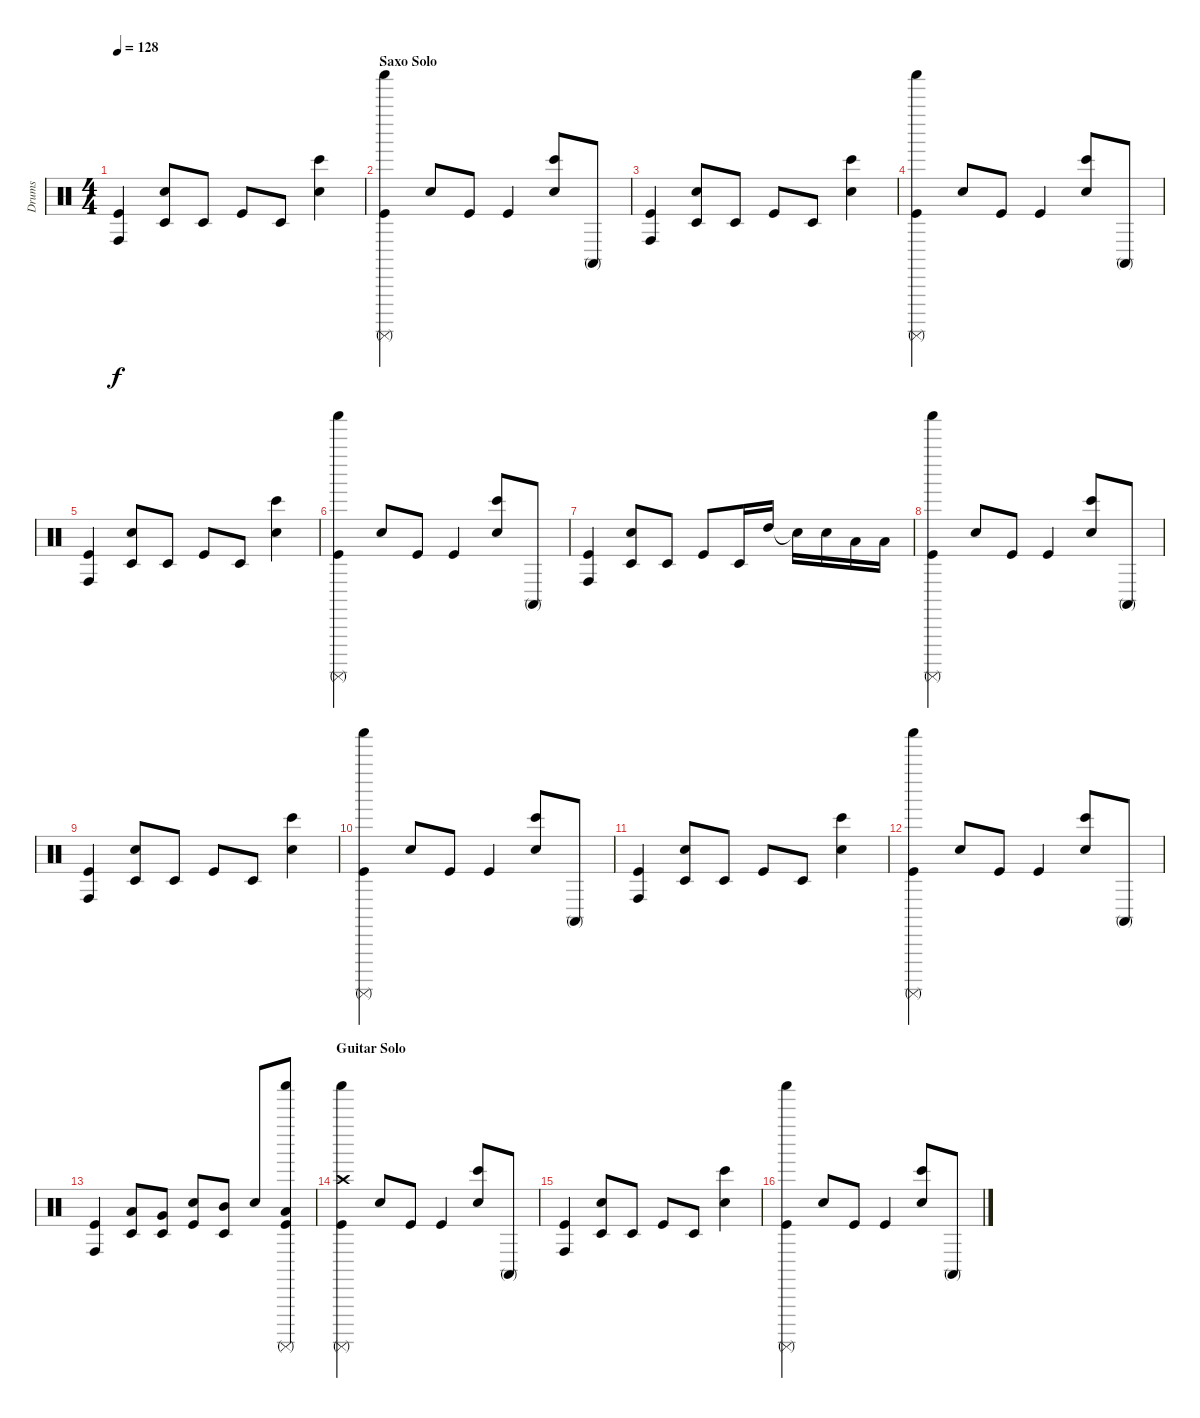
\track ("Drums" "Drums") {instrument percussion}
\staff {score}
\articulation defaults
\ts (4 4)
\tempo 128
\clef neutral
\ks c
("Conga high (hit)" "Kick (hit)").4{dy f} ("Timbale low (hit)" "Electric Snare (hit)").8 "Timbale low (hit)".8 "Kick (hit)".8 "Timbale low (hit)".8 ("Bongo High (hit)" "Electric Snare (hit)").4 |
\section ("" "Saxo Solo")
("Surdo (mute)" "Shaker (hit)" "Kick (hit)").4 "Electric Snare (hit)".8 "Kick (hit)".8 "Kick (hit)".4 ("Bongo High (hit)" "Electric Snare (hit)").8 "Conga high (mute)".8 |
("Conga high (hit)" "Kick (hit)").4 ("Timbale low (hit)" "Electric Snare (hit)").8 "Timbale low (hit)".8 "Kick (hit)".8 "Timbale low (hit)".8 ("Bongo High (hit)" "Electric Snare (hit)").4 |
("Surdo (mute)" "Shaker (hit)" "Kick (hit)").4 "Electric Snare (hit)".8 "Kick (hit)".8 "Kick (hit)".4 ("Bongo High (hit)" "Electric Snare (hit)").8 "Conga high (mute)".8 |
("Conga high (hit)" "Kick (hit)").4 ("Timbale low (hit)" "Electric Snare (hit)").8 "Timbale low (hit)".8 "Kick (hit)".8 "Timbale low (hit)".8 ("Bongo High (hit)" "Electric Snare (hit)").4 |
("Surdo (mute)" "Shaker (hit)" "Kick (hit)").4 "Electric Snare (hit)".8 "Kick (hit)".8 "Kick (hit)".4 ("Bongo High (hit)" "Electric Snare (hit)").8 "Conga high (mute)".8 |
("Conga high (hit)" "Kick (hit)").4 ("Timbale low (hit)" "Electric Snare (hit)").8 "Timbale low (hit)".8 "Kick (hit)".8 "Timbale low (hit)".16 "High Tom (hit)".16 "Snare (hit)"{t}.16 "Electric Snare (hit)".16 "Low Tom (hit)".16 "Low Floor Tom (hit)".16 |
("Surdo (mute)" "Shaker (hit)" "Kick (hit)").4 "Electric Snare (hit)".8 "Kick (hit)".8 "Kick (hit)".4 ("Bongo High (hit)" "Electric Snare (hit)").8 "Conga high (mute)".8 |
("Conga high (hit)" "Kick (hit)").4 ("Timbale low (hit)" "Electric Snare (hit)").8 "Timbale low (hit)".8 "Kick (hit)".8 "Timbale low (hit)".8 ("Bongo High (hit)" "Electric Snare (hit)").4 |
("Surdo (mute)" "Shaker (hit)" "Kick (hit)").4 "Electric Snare (hit)".8 "Kick (hit)".8 "Kick (hit)".4 ("Bongo High (hit)" "Electric Snare (hit)").8 "Conga high (mute)".8 |
("Conga high (hit)" "Kick (hit)").4 ("Timbale low (hit)" "Electric Snare (hit)").8 "Timbale low (hit)".8 "Kick (hit)".8 "Timbale low (hit)".8 ("Bongo High (hit)" "Electric Snare (hit)").4 |
("Surdo (mute)" "Shaker (hit)" "Kick (hit)").4 "Electric Snare (hit)".8 "Kick (hit)".8 "Kick (hit)".4 ("Bongo High (hit)" "Electric Snare (hit)").8 "Conga high (mute)".8 |
("Conga high (hit)" "Kick (hit)").4 ("Timbale low (hit)" "Low Tom (hit)").8 ("Timbale low (hit)" "Very Low Tom (hit)").8 ("Electric Snare (hit)" "Kick (hit)").8 ("Timbale low (hit)" "Mid Tom (hit)").8 "Electric Snare (hit)".8 ("Shaker (hit)" "Surdo (mute)" "Low Floor Tom (hit)" "Kick (hit)").8 |
\section ("" "Guitar Solo")
("Crash high (hit)" "Surdo (mute)" "Shaker (hit)" "Kick (hit)").4 "Electric Snare (hit)".8 "Kick (hit)".8 "Kick (hit)".4 ("Bongo High (hit)" "Electric Snare (hit)").8 "Conga high (mute)".8 |
("Conga high (hit)" "Kick (hit)").4 ("Timbale low (hit)" "Electric Snare (hit)").8 "Timbale low (hit)".8 "Kick (hit)".8 "Timbale low (hit)".8 ("Bongo High (hit)" "Electric Snare (hit)").4 |
("Surdo (mute)" "Shaker (hit)" "Kick (hit)").4 "Electric Snare (hit)".8 "Kick (hit)".8 "Kick (hit)".4 ("Bongo High (hit)" "Electric Snare (hit)").8 "Conga high (mute)".8
